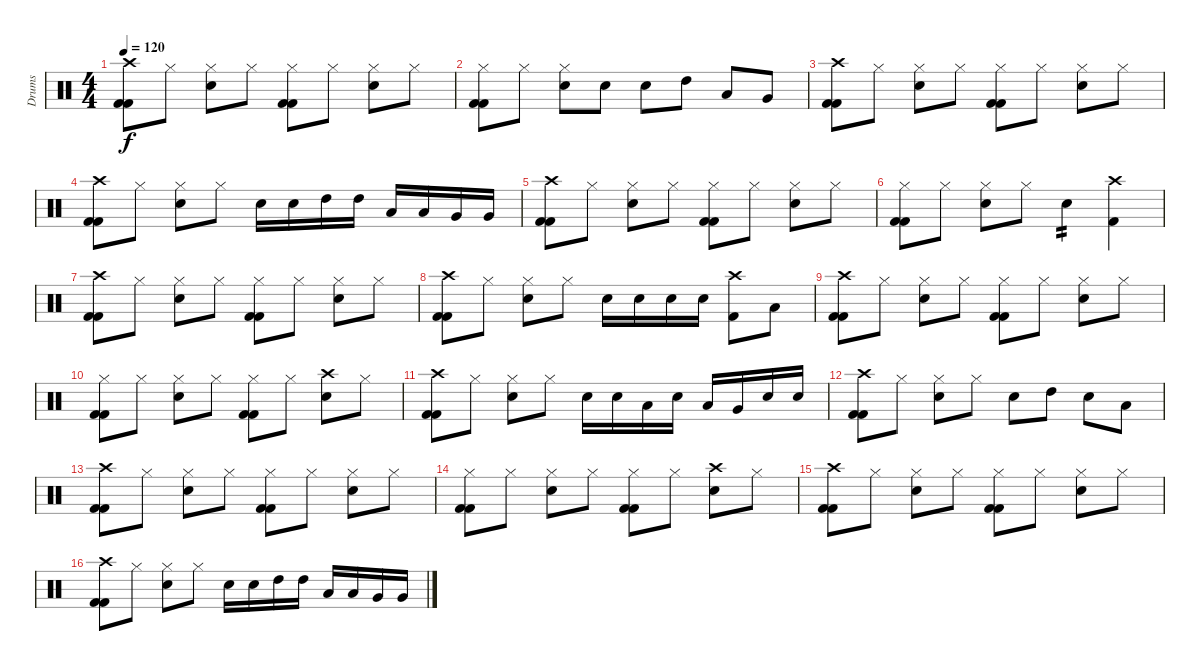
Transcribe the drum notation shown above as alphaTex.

\track ("Drums" "Drums") {instrument percussion}
\staff {score}
\articulation defaults
\ts (4 4)
\tempo 120
\clef neutral
\ks c
("Crash high (hit)" "Kick (hit) 2" "Kick (hit) 2").8{dy f} "Hi-Hat (closed)".8 ("Electric Snare (hit)" "Hi-Hat (closed)").8 "Hi-Hat (closed)".8 ("Kick (hit) 2" "Kick (hit) 2" "Hi-Hat (closed)").8 "Hi-Hat (closed)".8 ("Hi-Hat (closed)" "Electric Snare (hit)").8 "Hi-Hat (closed)".8 |
("Hi-Hat (closed)" "Kick (hit) 2" "Kick (hit) 2").8 "Hi-Hat (closed)".8 ("Electric Snare (hit)" "Hi-Hat (closed)").8 "Electric Snare (hit)".8 "Electric Snare (hit)".8 "High Tom (hit)".8 "Low Tom (hit)".8 "Very Low Tom (hit)".8 |
("Crash high (hit)" "Kick (hit) 2" "Kick (hit) 2").8 "Hi-Hat (closed)".8 ("Electric Snare (hit)" "Hi-Hat (closed)").8 "Hi-Hat (closed)".8 ("Kick (hit) 2" "Kick (hit) 2" "Hi-Hat (closed)").8 "Hi-Hat (closed)".8 ("Hi-Hat (closed)" "Electric Snare (hit)").8 "Hi-Hat (closed)".8 |
("Crash high (hit)" "Kick (hit) 2" "Kick (hit) 2").8 "Hi-Hat (closed)".8 ("Electric Snare (hit)" "Hi-Hat (closed)").8 "Hi-Hat (closed)".8 "Electric Snare (hit)".16 "Electric Snare (hit)".16 "High Tom (hit)".16 "High Tom (hit)".16 "Low Tom (hit)".16 "Low Tom (hit)".16 "Very Low Tom (hit)".16 "Very Low Tom (hit)".16 |
("Crash high (hit)" "Kick (hit) 2" "Kick (hit) 2").8 "Hi-Hat (closed)".8 ("Electric Snare (hit)" "Hi-Hat (closed)").8 "Hi-Hat (closed)".8 ("Kick (hit) 2" "Kick (hit) 2" "Hi-Hat (closed)").8 "Hi-Hat (closed)".8 ("Hi-Hat (closed)" "Electric Snare (hit)").8 "Hi-Hat (closed)".8 |
("Hi-Hat (closed)" "Kick (hit) 2" "Kick (hit) 2").8 "Hi-Hat (closed)".8 ("Electric Snare (hit)" "Hi-Hat (closed)").8 "Hi-Hat (closed)".8 "Electric Snare (hit)".4{tp 2} ("Kick (hit) 2" "Crash high (hit)").4 |
("Crash high (hit)" "Kick (hit) 2" "Kick (hit) 2").8 "Hi-Hat (closed)".8 ("Electric Snare (hit)" "Hi-Hat (closed)").8 "Hi-Hat (closed)".8 ("Kick (hit) 2" "Kick (hit) 2" "Hi-Hat (closed)").8 "Hi-Hat (closed)".8 ("Hi-Hat (closed)" "Electric Snare (hit)").8 "Hi-Hat (closed)".8 |
("Crash high (hit)" "Kick (hit) 2" "Kick (hit) 2").8 "Hi-Hat (closed)".8 ("Electric Snare (hit)" "Hi-Hat (closed)").8 "Hi-Hat (closed)".8 "Electric Snare (hit)".16 "Electric Snare (hit)".16 "Electric Snare (hit)".16 "Electric Snare (hit)".16 ("Crash high (hit)" "Kick (hit) 2").8 "Low Tom (hit)".8 |
("Crash high (hit)" "Kick (hit) 2" "Kick (hit) 2").8 "Hi-Hat (closed)".8 ("Electric Snare (hit)" "Hi-Hat (closed)").8 "Hi-Hat (closed)".8 ("Kick (hit) 2" "Kick (hit) 2" "Hi-Hat (closed)").8 "Hi-Hat (closed)".8 ("Hi-Hat (closed)" "Electric Snare (hit)").8 "Hi-Hat (closed)".8 |
("Hi-Hat (closed)" "Kick (hit) 2" "Kick (hit) 2").8 "Hi-Hat (closed)".8 ("Electric Snare (hit)" "Hi-Hat (closed)").8 "Hi-Hat (closed)".8 ("Kick (hit) 2" "Kick (hit) 2" "Hi-Hat (closed)").8 "Hi-Hat (closed)".8 ("Crash high (hit)" "Electric Snare (hit)").8 "Hi-Hat (closed)".8 |
("Crash high (hit)" "Kick (hit) 2" "Kick (hit) 2").8 "Hi-Hat (closed)".8 ("Electric Snare (hit)" "Hi-Hat (closed)").8 "Hi-Hat (closed)".8 "Electric Snare (hit)".16 "Electric Snare (hit)".16 "Low Tom (hit)".16 "Electric Snare (hit)".16 "Low Tom (hit)".16 "Very Low Tom (hit)".16 "Electric Snare (hit)".16 "Electric Snare (hit)".16 |
("Crash high (hit)" "Kick (hit) 2" "Kick (hit) 2").8 "Hi-Hat (closed)".8 ("Electric Snare (hit)" "Hi-Hat (closed)").8 "Hi-Hat (closed)".8 "Electric Snare (hit)".8 "High Tom (hit)".8 "Electric Snare (hit)".8 "Low Tom (hit)".8 |
("Crash high (hit)" "Kick (hit) 2" "Kick (hit) 2").8 "Hi-Hat (closed)".8 ("Electric Snare (hit)" "Hi-Hat (closed)").8 "Hi-Hat (closed)".8 ("Kick (hit) 2" "Kick (hit) 2" "Hi-Hat (closed)").8 "Hi-Hat (closed)".8 ("Hi-Hat (closed)" "Electric Snare (hit)").8 "Hi-Hat (closed)".8 |
("Hi-Hat (closed)" "Kick (hit) 2" "Kick (hit) 2").8 "Hi-Hat (closed)".8 ("Electric Snare (hit)" "Hi-Hat (closed)").8 "Hi-Hat (closed)".8 ("Kick (hit) 2" "Kick (hit) 2" "Hi-Hat (closed)").8 "Hi-Hat (closed)".8 ("Crash high (hit)" "Electric Snare (hit)").8 "Hi-Hat (closed)".8 |
("Crash high (hit)" "Kick (hit) 2" "Kick (hit) 2").8 "Hi-Hat (closed)".8 ("Electric Snare (hit)" "Hi-Hat (closed)").8 "Hi-Hat (closed)".8 ("Kick (hit) 2" "Kick (hit) 2" "Hi-Hat (closed)").8 "Hi-Hat (closed)".8 ("Hi-Hat (closed)" "Electric Snare (hit)").8 "Hi-Hat (closed)".8 |
("Crash high (hit)" "Kick (hit) 2" "Kick (hit) 2").8 "Hi-Hat (closed)".8 ("Electric Snare (hit)" "Hi-Hat (closed)").8 "Hi-Hat (closed)".8 "Electric Snare (hit)".16 "Electric Snare (hit)".16 "High Tom (hit)".16 "High Tom (hit)".16 "Low Tom (hit)".16 "Low Tom (hit)".16 "Very Low Tom (hit)".16 "Very Low Tom (hit)".16
